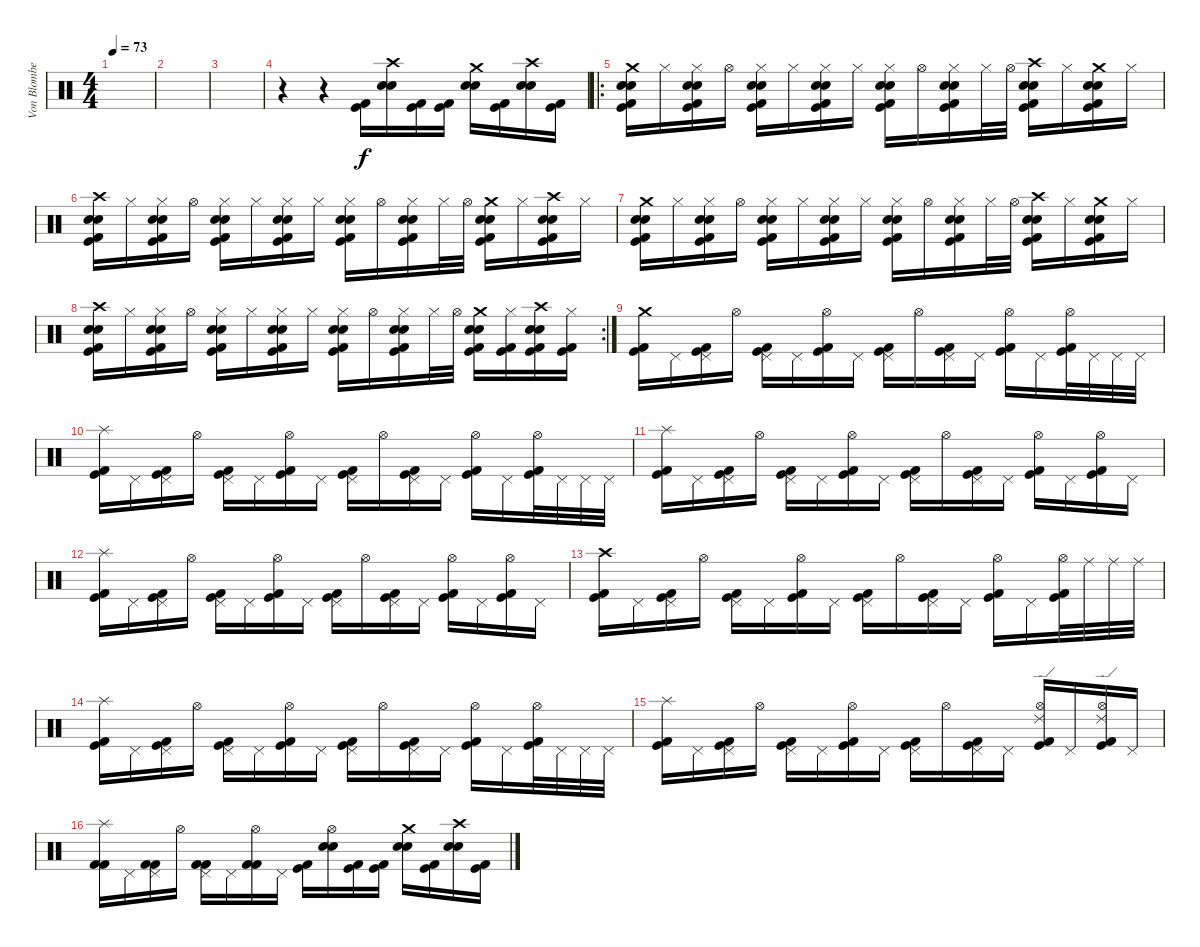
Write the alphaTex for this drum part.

\track ("Von Blomberg" "Von Blombe") {instrument percussion}
\staff {score}
\articulation defaults
\ts (4 4)
\tempo 73
\clef neutral
\ks c
|
|
|
r.4 r.4 ("Kick (hit)" "Kick (hit) 2").16 ("Crash high (hit)" "Electric Snare (hit)" "Snare (hit) 2").16 ("Kick (hit)" "Kick (hit) 2").16 ("Kick (hit)" "Kick (hit) 2").16 ("Crash medium (hit)" "Electric Snare (hit)" "Snare (hit) 2").16 ("Kick (hit)" "Kick (hit) 2").16 ("Crash high (hit)" "Electric Snare (hit)" "Snare (hit) 2").16 ("Kick (hit)" "Kick (hit) 2").16 |
\ro
("Crash medium (hit)" "Snare (hit) 2" "Electric Snare (hit)" "Kick (hit)" "Kick (hit) 2").16 "Hi-Hat (closed)".16 ("Snare (hit) 2" "Hi-Hat (closed)" "Electric Snare (hit)" "Kick (hit) 2" "Kick (hit)").16 "Hi-Hat (open)".16 ("Snare (hit) 2" "Hi-Hat (closed)" "Electric Snare (hit)" "Kick (hit) 2" "Kick (hit)").16 "Hi-Hat (closed)".16 ("Snare (hit) 2" "Hi-Hat (closed)" "Electric Snare (hit)" "Kick (hit) 2" "Kick (hit)").16 "Hi-Hat (closed)".16 ("Snare (hit) 2" "Hi-Hat (closed)" "Electric Snare (hit)" "Kick (hit) 2" "Kick (hit)").16 "Hi-Hat (open)".16 ("Snare (hit) 2" "Hi-Hat (closed)" "Electric Snare (hit)" "Kick (hit) 2" "Kick (hit)").16 "Hi-Hat (closed)".32 "Hi-Hat (open)".32 ("Crash high (hit)" "Kick (hit)" "Electric Snare (hit)" "Snare (hit) 2" "Kick (hit) 2").16 "Hi-Hat (closed)".16 ("Crash medium (hit)" "Kick (hit)" "Electric Snare (hit)" "Snare (hit) 2" "Kick (hit) 2").16 "Hi-Hat (closed)".16 |
("Crash high (hit)" "Snare (hit) 2" "Electric Snare (hit)" "Kick (hit)" "Kick (hit) 2").16 "Hi-Hat (closed)".16 ("Snare (hit) 2" "Hi-Hat (closed)" "Electric Snare (hit)" "Kick (hit) 2" "Kick (hit)").16 "Hi-Hat (open)".16 ("Snare (hit) 2" "Hi-Hat (closed)" "Electric Snare (hit)" "Kick (hit) 2" "Kick (hit)").16 "Hi-Hat (closed)".16 ("Snare (hit) 2" "Hi-Hat (closed)" "Electric Snare (hit)" "Kick (hit) 2" "Kick (hit)").16 "Hi-Hat (closed)".16 ("Snare (hit) 2" "Hi-Hat (closed)" "Electric Snare (hit)" "Kick (hit) 2" "Kick (hit)").16 "Hi-Hat (open)".16 ("Snare (hit) 2" "Hi-Hat (closed)" "Electric Snare (hit)" "Kick (hit) 2" "Kick (hit)").16 "Hi-Hat (closed)".32 "Hi-Hat (open)".32 ("Crash medium (hit)" "Kick (hit)" "Electric Snare (hit)" "Snare (hit) 2" "Kick (hit) 2").16 "Hi-Hat (closed)".16 ("Crash high (hit)" "Kick (hit)" "Electric Snare (hit)" "Snare (hit) 2" "Kick (hit) 2").16 "Hi-Hat (closed)".16 |
("Crash medium (hit)" "Snare (hit) 2" "Electric Snare (hit)" "Kick (hit)" "Kick (hit) 2").16 "Hi-Hat (closed)".16 ("Snare (hit) 2" "Hi-Hat (closed)" "Electric Snare (hit)" "Kick (hit) 2" "Kick (hit)").16 "Hi-Hat (open)".16 ("Snare (hit) 2" "Hi-Hat (closed)" "Electric Snare (hit)" "Kick (hit) 2" "Kick (hit)").16 "Hi-Hat (closed)".16 ("Snare (hit) 2" "Hi-Hat (closed)" "Electric Snare (hit)" "Kick (hit) 2" "Kick (hit)").16 "Hi-Hat (closed)".16 ("Snare (hit) 2" "Hi-Hat (closed)" "Electric Snare (hit)" "Kick (hit) 2" "Kick (hit)").16 "Hi-Hat (open)".16 ("Snare (hit) 2" "Hi-Hat (closed)" "Electric Snare (hit)" "Kick (hit) 2" "Kick (hit)").16 "Hi-Hat (closed)".32 "Hi-Hat (open)".32 ("Crash high (hit)" "Kick (hit)" "Electric Snare (hit)" "Snare (hit) 2" "Kick (hit) 2").16 "Hi-Hat (closed)".16 ("Crash medium (hit)" "Kick (hit)" "Electric Snare (hit)" "Snare (hit) 2" "Kick (hit) 2").16 "Hi-Hat (closed)".16 |
\rc 2
("Crash high (hit)" "Snare (hit) 2" "Electric Snare (hit)" "Kick (hit)" "Kick (hit) 2").16 "Hi-Hat (closed)".16 ("Snare (hit) 2" "Hi-Hat (closed)" "Electric Snare (hit)" "Kick (hit) 2" "Kick (hit)").16 "Hi-Hat (open)".16 ("Snare (hit) 2" "Hi-Hat (closed)" "Electric Snare (hit)" "Kick (hit) 2" "Kick (hit)").16 "Hi-Hat (closed)".16 ("Snare (hit) 2" "Hi-Hat (closed)" "Electric Snare (hit)" "Kick (hit) 2" "Kick (hit)").16 "Hi-Hat (closed)".16 ("Snare (hit) 2" "Hi-Hat (closed)" "Electric Snare (hit)" "Kick (hit) 2" "Kick (hit)").16 "Hi-Hat (open)".16 ("Snare (hit) 2" "Hi-Hat (closed)" "Electric Snare (hit)" "Kick (hit) 2" "Kick (hit)").16 "Hi-Hat (closed)".32 "Hi-Hat (open)".32 ("Crash medium (hit)" "Kick (hit)" "Electric Snare (hit)" "Snare (hit) 2" "Kick (hit) 2").16 ("Hi-Hat (closed)" "Kick (hit)" "Kick (hit) 2").16 ("Crash high (hit)" "Kick (hit)" "Electric Snare (hit)" "Snare (hit) 2" "Kick (hit) 2").16 ("Hi-Hat (closed)" "Kick (hit)" "Kick (hit) 2").16 |
("Crash medium (hit)" "Kick (hit)" "Kick (hit) 2").16 "Pedal Hi-Hat (hit)".16 ("Pedal Hi-Hat (hit)" "Kick (hit)" "Kick (hit) 2").16 "Hi-Hat (open)".16 ("Pedal Hi-Hat (hit)" "Kick (hit)" "Kick (hit) 2").16 "Pedal Hi-Hat (hit)".16 ("Hi-Hat (open)" "Kick (hit)" "Kick (hit) 2").16 "Pedal Hi-Hat (hit)".16 ("Pedal Hi-Hat (hit)" "Kick (hit)" "Kick (hit) 2").16 "Hi-Hat (open)".16 ("Pedal Hi-Hat (hit)" "Kick (hit)" "Kick (hit) 2").16 "Pedal Hi-Hat (hit)".16 ("Hi-Hat (open)" "Kick (hit)" "Kick (hit) 2").16 "Pedal Hi-Hat (hit)".16 ("Hi-Hat (open)" "Kick (hit)" "Kick (hit) 2").32 "Pedal Hi-Hat (hit)".32 "Pedal Hi-Hat (hit)".32 "Pedal Hi-Hat (hit)".32 |
("Splash (hit)" "Kick (hit)" "Kick (hit) 2").16 "Pedal Hi-Hat (hit)".16 ("Pedal Hi-Hat (hit)" "Kick (hit)" "Kick (hit) 2").16 "Hi-Hat (open)".16 ("Pedal Hi-Hat (hit)" "Kick (hit)" "Kick (hit) 2").16 "Pedal Hi-Hat (hit)".16 ("Hi-Hat (open)" "Kick (hit)" "Kick (hit) 2").16 "Pedal Hi-Hat (hit)".16 ("Pedal Hi-Hat (hit)" "Kick (hit)" "Kick (hit) 2").16 "Hi-Hat (open)".16 ("Pedal Hi-Hat (hit)" "Kick (hit)" "Kick (hit) 2").16 "Pedal Hi-Hat (hit)".16 ("Hi-Hat (open)" "Kick (hit)" "Kick (hit) 2").16 "Pedal Hi-Hat (hit)".16 ("Hi-Hat (open)" "Kick (hit)" "Kick (hit) 2").32 "Pedal Hi-Hat (hit)".32 "Pedal Hi-Hat (hit)".32 "Pedal Hi-Hat (hit)".32 |
("Splash (hit)" "Kick (hit)" "Kick (hit) 2").16 "Pedal Hi-Hat (hit)".16 ("Pedal Hi-Hat (hit)" "Kick (hit)" "Kick (hit) 2").16 "Hi-Hat (open)".16 ("Pedal Hi-Hat (hit)" "Kick (hit)" "Kick (hit) 2").16 "Pedal Hi-Hat (hit)".16 ("Hi-Hat (open)" "Kick (hit)" "Kick (hit) 2").16 "Pedal Hi-Hat (hit)".16 ("Pedal Hi-Hat (hit)" "Kick (hit)" "Kick (hit) 2").16 "Hi-Hat (open)".16 ("Pedal Hi-Hat (hit)" "Kick (hit)" "Kick (hit) 2").16 "Pedal Hi-Hat (hit)".16 ("Hi-Hat (open)" "Kick (hit)" "Kick (hit) 2").16 "Pedal Hi-Hat (hit)".16 ("Hi-Hat (open)" "Kick (hit)" "Kick (hit) 2").16 "Pedal Hi-Hat (hit)".16 |
("Splash (hit)" "Kick (hit)" "Kick (hit) 2").16 "Pedal Hi-Hat (hit)".16 ("Pedal Hi-Hat (hit)" "Kick (hit)" "Kick (hit) 2").16 "Hi-Hat (open)".16 ("Pedal Hi-Hat (hit)" "Kick (hit)" "Kick (hit) 2").16 "Pedal Hi-Hat (hit)".16 ("Hi-Hat (open)" "Kick (hit)" "Kick (hit) 2").16 "Pedal Hi-Hat (hit)".16 ("Pedal Hi-Hat (hit)" "Kick (hit)" "Kick (hit) 2").16 "Hi-Hat (open)".16 ("Pedal Hi-Hat (hit)" "Kick (hit)" "Kick (hit) 2").16 "Pedal Hi-Hat (hit)".16 ("Hi-Hat (open)" "Kick (hit)" "Kick (hit) 2").16 "Pedal Hi-Hat (hit)".16 ("Hi-Hat (open)" "Kick (hit)" "Kick (hit) 2").16 "Pedal Hi-Hat (hit)".16 |
("Crash high (hit)" "Kick (hit)" "Kick (hit) 2").16 "Pedal Hi-Hat (hit)".16 ("Pedal Hi-Hat (hit)" "Kick (hit)" "Kick (hit) 2").16 "Hi-Hat (open)".16 ("Pedal Hi-Hat (hit)" "Kick (hit)" "Kick (hit) 2").16 "Pedal Hi-Hat (hit)".16 ("Hi-Hat (open)" "Kick (hit)" "Kick (hit) 2").16 "Pedal Hi-Hat (hit)".16 ("Pedal Hi-Hat (hit)" "Kick (hit)" "Kick (hit) 2").16 "Hi-Hat (open)".16 ("Pedal Hi-Hat (hit)" "Kick (hit)" "Kick (hit) 2").16 "Pedal Hi-Hat (hit)".16 ("Hi-Hat (open)" "Kick (hit)" "Kick (hit) 2").16 "Pedal Hi-Hat (hit)".16 ("Hi-Hat (open)" "Kick (hit)" "Kick (hit) 2").32 "Ride (middle)".32 "Ride (middle)".32 "Ride (middle)".32 |
("Splash (hit)" "Kick (hit)" "Kick (hit) 2").16 "Pedal Hi-Hat (hit)".16 ("Pedal Hi-Hat (hit)" "Kick (hit)" "Kick (hit) 2").16 "Hi-Hat (open)".16 ("Pedal Hi-Hat (hit)" "Kick (hit)" "Kick (hit) 2").16 "Pedal Hi-Hat (hit)".16 ("Hi-Hat (open)" "Kick (hit)" "Kick (hit) 2").16 "Pedal Hi-Hat (hit)".16 ("Pedal Hi-Hat (hit)" "Kick (hit)" "Kick (hit) 2").16 "Hi-Hat (open)".16 ("Pedal Hi-Hat (hit)" "Kick (hit)" "Kick (hit) 2").16 "Pedal Hi-Hat (hit)".16 ("Hi-Hat (open)" "Kick (hit)" "Kick (hit) 2").16 "Pedal Hi-Hat (hit)".16 ("Hi-Hat (open)" "Kick (hit)" "Kick (hit) 2").32 "Pedal Hi-Hat (hit)".32 "Pedal Hi-Hat (hit)".32 "Pedal Hi-Hat (hit)".32 |
("Splash (hit)" "Kick (hit)" "Kick (hit) 2").16 "Pedal Hi-Hat (hit)".16 ("Pedal Hi-Hat (hit)" "Kick (hit)" "Kick (hit) 2").16 "Hi-Hat (open)".16 ("Pedal Hi-Hat (hit)" "Kick (hit)" "Kick (hit) 2").16 "Pedal Hi-Hat (hit)".16 ("Hi-Hat (open)" "Kick (hit)" "Kick (hit) 2").16 "Pedal Hi-Hat (hit)".16 ("Pedal Hi-Hat (hit)" "Kick (hit)" "Kick (hit) 2").16 "Hi-Hat (open)".16 ("Pedal Hi-Hat (hit)" "Kick (hit)" "Kick (hit) 2").16 "Pedal Hi-Hat (hit)".16 ("Ride (edge) 2" "Hi-Hat (open)" "Kick (hit)" "Kick (hit) 2").16 "Pedal Hi-Hat (hit)".16 ("Ride (edge) 2" "Hi-Hat (open)" "Kick (hit)" "Kick (hit) 2").16 "Pedal Hi-Hat (hit)".16 |
("Splash (hit)" "Kick (hit) 2" "Kick (hit) 2").16 "Pedal Hi-Hat (hit)".16 ("Pedal Hi-Hat (hit)" "Kick (hit) 2" "Kick (hit) 2").16 "Hi-Hat (open)".16 ("Pedal Hi-Hat (hit)" "Kick (hit) 2" "Kick (hit) 2").16 "Pedal Hi-Hat (hit)".16 ("Hi-Hat (open)" "Kick (hit) 2" "Kick (hit) 2").16 "Pedal Hi-Hat (hit)".16 ("Kick (hit)" "Kick (hit) 2").16 ("Hi-Hat (open)" "Snare (hit) 2" "Electric Snare (hit)").16 ("Kick (hit)" "Kick (hit) 2").16 ("Kick (hit)" "Kick (hit) 2").16 ("Crash medium (hit)" "Snare (hit) 2" "Electric Snare (hit)").16 ("Kick (hit)" "Kick (hit) 2").16 ("Crash high (hit)" "Snare (hit) 2" "Electric Snare (hit)").16 ("Kick (hit)" "Kick (hit) 2").16
